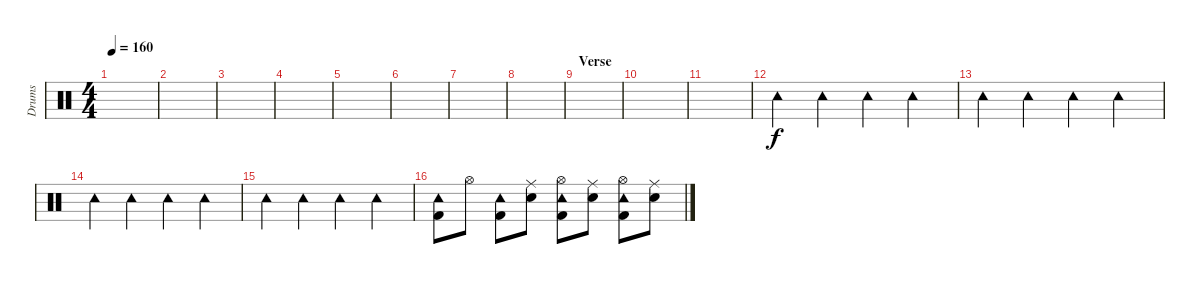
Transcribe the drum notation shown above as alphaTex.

\track ("Drums" "Drums") {instrument percussion}
\staff {score}
\articulation defaults
\ts (4 4)
\tempo 160
\clef neutral
\ks c
|
|
|
|
|
|
|
|
\section ("" "Verse")
|
|
|
"Tambourine (hit)".4 "Tambourine (hit)".4 "Tambourine (hit)".4 "Tambourine (hit)".4 |
"Tambourine (hit)".4 "Tambourine (hit)".4 "Tambourine (hit)".4 "Tambourine (hit)".4 |
"Tambourine (hit)".4 "Tambourine (hit)".4 "Tambourine (hit)".4 "Tambourine (hit)".4 |
"Tambourine (hit)".4 "Tambourine (hit)".4 "Tambourine (hit)".4 "Tambourine (hit)".4 |
("Kick (hit) 2" "Tambourine (hit)").8 "Hi-Hat (open)".8 ("Kick (hit) 2" "Tambourine (hit)").8 ("Electric Snare (hit)" "Ride (middle)").8 ("Kick (hit) 2" "Tambourine (hit)" "Hi-Hat (open)").8 ("Electric Snare (hit)" "Ride (middle)").8 ("Kick (hit) 2" "Tambourine (hit)" "Hi-Hat (open)").8 ("Electric Snare (hit)" "Ride (middle)").8
